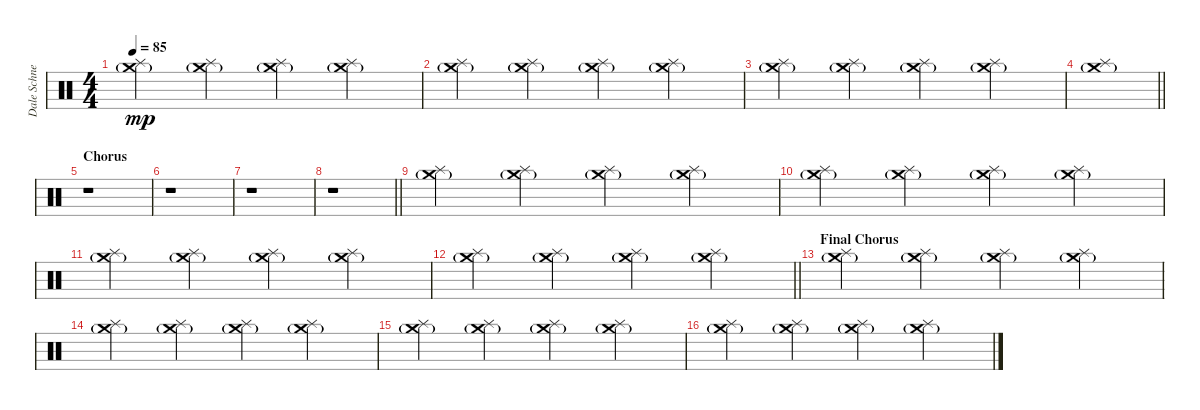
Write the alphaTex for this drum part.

\track ("Dale Schnettler (Drums)" "Dale Schne") {instrument percussion}
\staff {score}
\articulation defaults
\ts (4 4)
\tempo 85
\clef neutral
\ks c
("Splash (hit)" "Crash medium (hit)"{g}).4{dy mp} ("Splash (hit)" "Crash medium (hit)"{g}).4 ("Splash (hit)" "Crash medium (hit)"{g}).4 ("Splash (hit)" "Crash medium (hit)"{g}).4 |
("Splash (hit)" "Crash medium (hit)"{g}).4 ("Splash (hit)" "Crash medium (hit)"{g}).4 ("Splash (hit)" "Crash medium (hit)"{g}).4 ("Splash (hit)" "Crash medium (hit)"{g}).4 |
("Splash (hit)" "Crash medium (hit)"{g}).4 ("Splash (hit)" "Crash medium (hit)"{g}).4 ("Splash (hit)" "Crash medium (hit)"{g}).4 ("Splash (hit)" "Crash medium (hit)"{g}).4 |
\barLineRight lightlight
("Splash (hit)" "Crash medium (hit)"{g}).1 |
\section ("" "Chorus")
r.1 |
r.1 |
r.1 |
\barLineRight lightlight
r.1 |
("Splash (hit)" "Crash medium (hit)"{g}).4 ("Splash (hit)" "Crash medium (hit)"{g}).4 ("Splash (hit)" "Crash medium (hit)"{g}).4 ("Splash (hit)" "Crash medium (hit)"{g}).4 |
("Splash (hit)" "Crash medium (hit)"{g}).4 ("Splash (hit)" "Crash medium (hit)"{g}).4 ("Splash (hit)" "Crash medium (hit)"{g}).4 ("Splash (hit)" "Crash medium (hit)"{g}).4 |
("Splash (hit)" "Crash medium (hit)"{g}).4 ("Splash (hit)" "Crash medium (hit)"{g}).4 ("Splash (hit)" "Crash medium (hit)"{g}).4 ("Splash (hit)" "Crash medium (hit)"{g}).4 |
\barLineRight lightlight
("Splash (hit)" "Crash medium (hit)"{g}).4 ("Splash (hit)" "Crash medium (hit)"{g}).4 ("Splash (hit)" "Crash medium (hit)"{g}).4 ("Splash (hit)" "Crash medium (hit)"{g}).4 |
\section ("" "Final Chorus")
("Splash (hit)" "Crash medium (hit)"{g}).4 ("Splash (hit)" "Crash medium (hit)"{g}).4 ("Splash (hit)" "Crash medium (hit)"{g}).4 ("Splash (hit)" "Crash medium (hit)"{g}).4 |
("Splash (hit)" "Crash medium (hit)"{g}).4 ("Splash (hit)" "Crash medium (hit)"{g}).4 ("Splash (hit)" "Crash medium (hit)"{g}).4 ("Splash (hit)" "Crash medium (hit)"{g}).4 |
("Splash (hit)" "Crash medium (hit)"{g}).4 ("Splash (hit)" "Crash medium (hit)"{g}).4 ("Splash (hit)" "Crash medium (hit)"{g}).4 ("Splash (hit)" "Crash medium (hit)"{g}).4 |
("Splash (hit)" "Crash medium (hit)"{g}).4 ("Splash (hit)" "Crash medium (hit)"{g}).4 ("Splash (hit)" "Crash medium (hit)"{g}).4 ("Splash (hit)" "Crash medium (hit)"{g}).4
